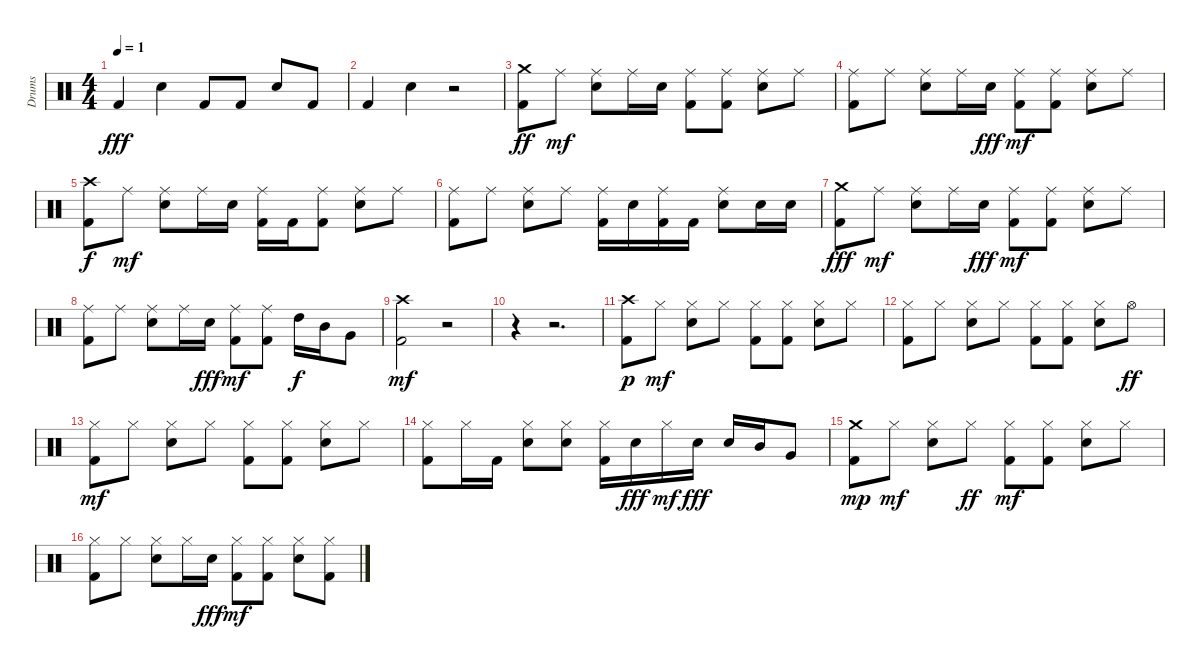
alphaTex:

\track ("Drums" "Drums") {instrument percussion}
\staff {score}
\articulation defaults
\ts (4 4)
\tempo 1
\clef neutral
\ks c "Kick (hit) 2".4{dy fff} "Snare (hit) 2".4 "Kick (hit) 2".8 "Kick (hit) 2".8 "Snare (hit) 2".8 "Kick (hit) 2".8
|
"Kick (hit) 2".4 "Snare (hit) 2".4 r.2 |
("Crash medium (hit)" "Kick (hit) 2").8{dy ff} "Ride (middle)".8{dy mf} ("Ride (middle)" "Snare (hit) 2").8 "Ride (middle)".16 "Snare (hit) 2".16 ("Ride (middle)" "Kick (hit) 2").8 ("Ride (middle)" "Kick (hit) 2").8 ("Ride (middle)" "Snare (hit) 2").8 "Ride (middle)".8 |
("Ride (middle)" "Kick (hit) 2").8 "Ride (middle)".8 ("Ride (middle)" "Snare (hit) 2").8 "Ride (middle)".16 "Snare (hit) 2".16{dy fff} ("Ride (middle)" "Kick (hit) 2").8{dy mf} ("Ride (middle)" "Kick (hit) 2").8 ("Ride (middle)" "Snare (hit) 2").8 "Ride (middle)".8 |
("Crash high (hit)" "Kick (hit) 2").8{dy f} "Ride (middle)".8{dy mf} ("Ride (middle)" "Snare (hit) 2").8 "Ride (middle)".16 "Snare (hit) 2".16 ("Ride (middle)" "Kick (hit) 2").16 "Kick (hit) 2".16 ("Ride (middle)" "Kick (hit) 2").8 ("Ride (middle)" "Snare (hit) 2").8 "Ride (middle)".8 |
("Ride (middle)" "Kick (hit) 2").8 "Ride (middle)".8 ("Ride (middle)" "Snare (hit) 2").8 "Ride (middle)".8 ("Ride (middle)" "Kick (hit) 2").16 "Snare (hit) 2".16 ("Ride (middle)" "Kick (hit) 2").16 "Kick (hit) 2".16 ("Ride (middle)" "Snare (hit) 2").8 "Snare (hit) 2".16 "Snare (hit) 2".16 |
("Crash medium (hit)" "Kick (hit) 2").8{dy fff} "Ride (middle)".8{dy mf} ("Ride (middle)" "Snare (hit) 2").8 "Ride (middle)".16 "Snare (hit) 2".16{dy fff} ("Ride (middle)" "Kick (hit) 2").8{dy mf} ("Ride (middle)" "Kick (hit) 2").8 ("Ride (middle)" "Snare (hit) 2").8 "Ride (middle)".8 |
("Ride (middle)" "Kick (hit) 2").8 "Ride (middle)".8 ("Ride (middle)" "Snare (hit) 2").8 "Ride (middle)".16 "Snare (hit) 2".16{dy fff} ("Ride (middle)" "Kick (hit) 2").8{dy mf} ("Ride (middle)" "Kick (hit) 2").8 "High Tom (hit)".16{dy f} "Mid Tom (hit)".16 "Very Low Tom (hit)".8 |
("Crash high (hit)" "Kick (hit) 2").2{dy mf} r.2 |
r.4 r.2{d} |
("Crash high (hit)" "Kick (hit) 2").8{dy p} "Hi-Hat (closed)".8{dy mf} ("Hi-Hat (closed)" "Snare (hit) 2").8 "Hi-Hat (closed)".8 ("Hi-Hat (closed)" "Kick (hit) 2").8 ("Hi-Hat (closed)" "Kick (hit) 2").8 ("Hi-Hat (closed)" "Snare (hit) 2").8 "Hi-Hat (closed)".8 |
("Hi-Hat (closed)" "Kick (hit) 2").8 "Hi-Hat (closed)".8 ("Hi-Hat (closed)" "Snare (hit) 2").8 "Hi-Hat (closed)".8 ("Hi-Hat (closed)" "Kick (hit) 2").8 ("Hi-Hat (closed)" "Kick (hit) 2").8 ("Hi-Hat (closed)" "Snare (hit) 2").8 "Hi-Hat (open)".8{dy ff} |
("Hi-Hat (closed)" "Kick (hit) 2").8{dy mf} "Hi-Hat (closed)".8 ("Hi-Hat (closed)" "Snare (hit) 2").8 "Hi-Hat (closed)".8 ("Hi-Hat (closed)" "Kick (hit) 2").8 ("Hi-Hat (closed)" "Kick (hit) 2").8 ("Hi-Hat (closed)" "Snare (hit) 2").8 "Hi-Hat (closed)".8 |
("Hi-Hat (closed)" "Kick (hit) 2").8 "Hi-Hat (closed)".16 "Kick (hit) 2".16 ("Hi-Hat (closed)" "Snare (hit) 2").8 ("Hi-Hat (closed)" "Snare (hit) 2").8 ("Hi-Hat (closed)" "Kick (hit) 2").16 "Snare (hit) 2".16{dy fff} "Hi-Hat (closed)".16{dy mf} "Snare (hit) 2".16{dy fff} "Snare (hit) 2".16 "Mid Tom (hit)".16 "Very Low Tom (hit)".8 |
("Crash medium (hit)" "Kick (hit) 2").8{dy mp} "Hi-Hat (closed)".8{dy mf} ("Hi-Hat (closed)" "Snare (hit) 2").8 "Hi-Hat (closed)".8{dy ff} ("Hi-Hat (closed)" "Kick (hit) 2").8{dy mf} ("Hi-Hat (closed)" "Kick (hit) 2").8 ("Hi-Hat (closed)" "Snare (hit) 2").8 "Hi-Hat (closed)".8 |
("Hi-Hat (closed)" "Kick (hit) 2").8 "Hi-Hat (closed)".8 ("Hi-Hat (closed)" "Snare (hit) 2").8 "Hi-Hat (closed)".16 "Snare (hit) 2".16{dy fff} ("Hi-Hat (closed)" "Kick (hit) 2").8{dy mf} ("Hi-Hat (closed)" "Kick (hit) 2").8 ("Hi-Hat (closed)" "Snare (hit) 2").8 ("Hi-Hat (closed)" "Kick (hit) 2").8
